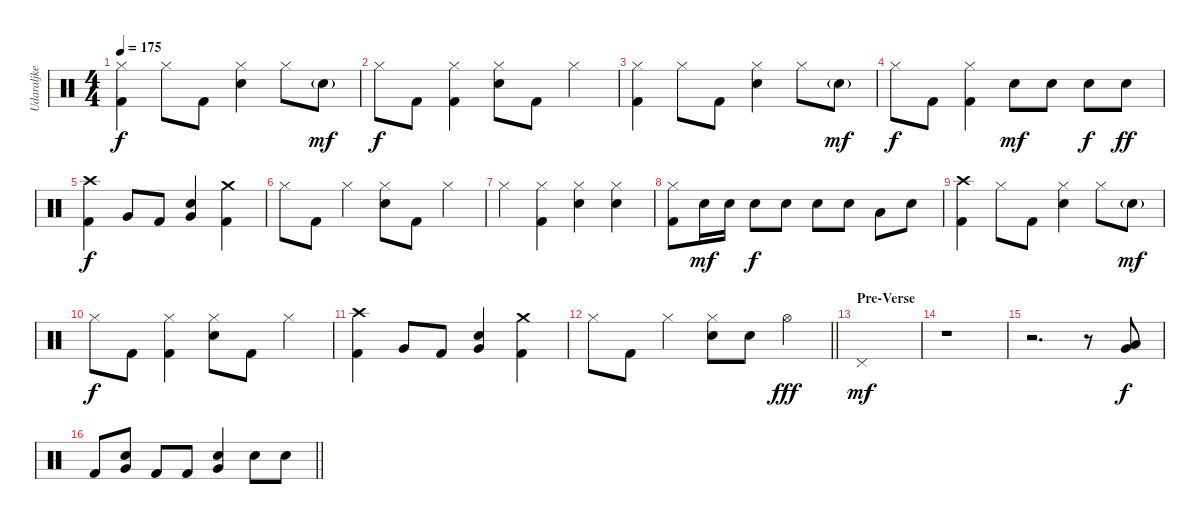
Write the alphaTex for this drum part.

\track ("Udaraljke" "Udaraljke") {instrument percussion}
\staff {score}
\articulation defaults
\ts (4 4)
\tempo 175
\clef neutral
\ks c
("Hi-Hat (closed)" "Kick (hit) 2").4{dy f} "Hi-Hat (closed)".8 "Kick (hit) 2".8 ("Hi-Hat (closed)" "Electric Snare (hit)").4 "Hi-Hat (closed)".8 "Electric Snare (hit)"{g}.8{dy mf} |
"Hi-Hat (closed)".8{dy f} "Kick (hit) 2".8 ("Hi-Hat (closed)" "Kick (hit) 2").4 ("Hi-Hat (closed)" "Electric Snare (hit)").8 "Kick (hit) 2".8 "Hi-Hat (closed)".4 |
("Hi-Hat (closed)" "Kick (hit) 2").4 "Hi-Hat (closed)".8 "Kick (hit) 2".8 ("Hi-Hat (closed)" "Electric Snare (hit)").4 "Hi-Hat (closed)".8 "Electric Snare (hit)"{g}.8{dy mf} |
"Hi-Hat (closed)".8{dy f} "Kick (hit) 2".8 ("Hi-Hat (closed)" "Kick (hit) 2").4 "Electric Snare (hit)".8{dy mf} "Electric Snare (hit)".8 "Electric Snare (hit)".8{dy f} "Electric Snare (hit)".8{dy ff} |
("Crash high (hit)" "Kick (hit) 2").4{dy f} "Very Low Tom (hit)".8 "Kick (hit) 2".8 ("Very Low Tom (hit)" "Electric Snare (hit)").4 ("Crash medium (hit)" "Kick (hit) 2").4 |
"Hi-Hat (closed)".8 "Kick (hit) 2".8 "Hi-Hat (closed)".4 ("Hi-Hat (closed)" "Electric Snare (hit)").8 "Kick (hit) 2".8 "Hi-Hat (closed)".4 |
"Hi-Hat (closed)".4 ("Hi-Hat (closed)" "Kick (hit) 2").4 ("Hi-Hat (closed)" "Electric Snare (hit)").4 ("Hi-Hat (closed)" "Electric Snare (hit)").4 |
("Hi-Hat (closed)" "Kick (hit) 2").8 "Electric Snare (hit)".16{dy mf} "Electric Snare (hit)".16 "Electric Snare (hit)".8{dy f} "Electric Snare (hit)".8 "Electric Snare (hit)".8 "Electric Snare (hit)".8 "Low Tom (hit)".8 "Electric Snare (hit)".8 |
("Crash high (hit)" "Kick (hit) 2").4 "Hi-Hat (closed)".8 "Kick (hit) 2".8 ("Hi-Hat (closed)" "Electric Snare (hit)").4 "Hi-Hat (closed)".8 "Electric Snare (hit)"{g}.8{dy mf} |
"Hi-Hat (closed)".8{dy f} "Kick (hit) 2".8 ("Hi-Hat (closed)" "Kick (hit) 2").4 ("Hi-Hat (closed)" "Electric Snare (hit)").8 "Kick (hit) 2".8 "Hi-Hat (closed)".4 |
("Crash high (hit)" "Kick (hit) 2").4 "Very Low Tom (hit)".8 "Kick (hit) 2".8 ("Very Low Tom (hit)" "Electric Snare (hit)").4 ("Crash medium (hit)" "Kick (hit) 2").4 |
\barLineRight lightlight "Hi-Hat (closed)".8 "Kick (hit) 2".8 "Hi-Hat (closed)".4
("Hi-Hat (closed)" "Electric Snare (hit)").8 "Electric Snare (hit)".8 "Hi-Hat (open)".4{dy fff} |
\section ("" "Pre-Verse")
"Pedal Hi-Hat (hit)".1{dy mf} |
r.1 |
r.2{d} r.8 ("Low Tom (hit)" "Very Low Tom (hit)").8{dy f} |
\barLineRight lightlight "Kick (hit) 2".8
("Very Low Tom (hit)" "Electric Snare (hit)").8 "Kick (hit) 2".8 "Kick (hit) 2".8 ("Very Low Tom (hit)" "Electric Snare (hit)").4 "Electric Snare (hit)".8 "Electric Snare (hit)".8
